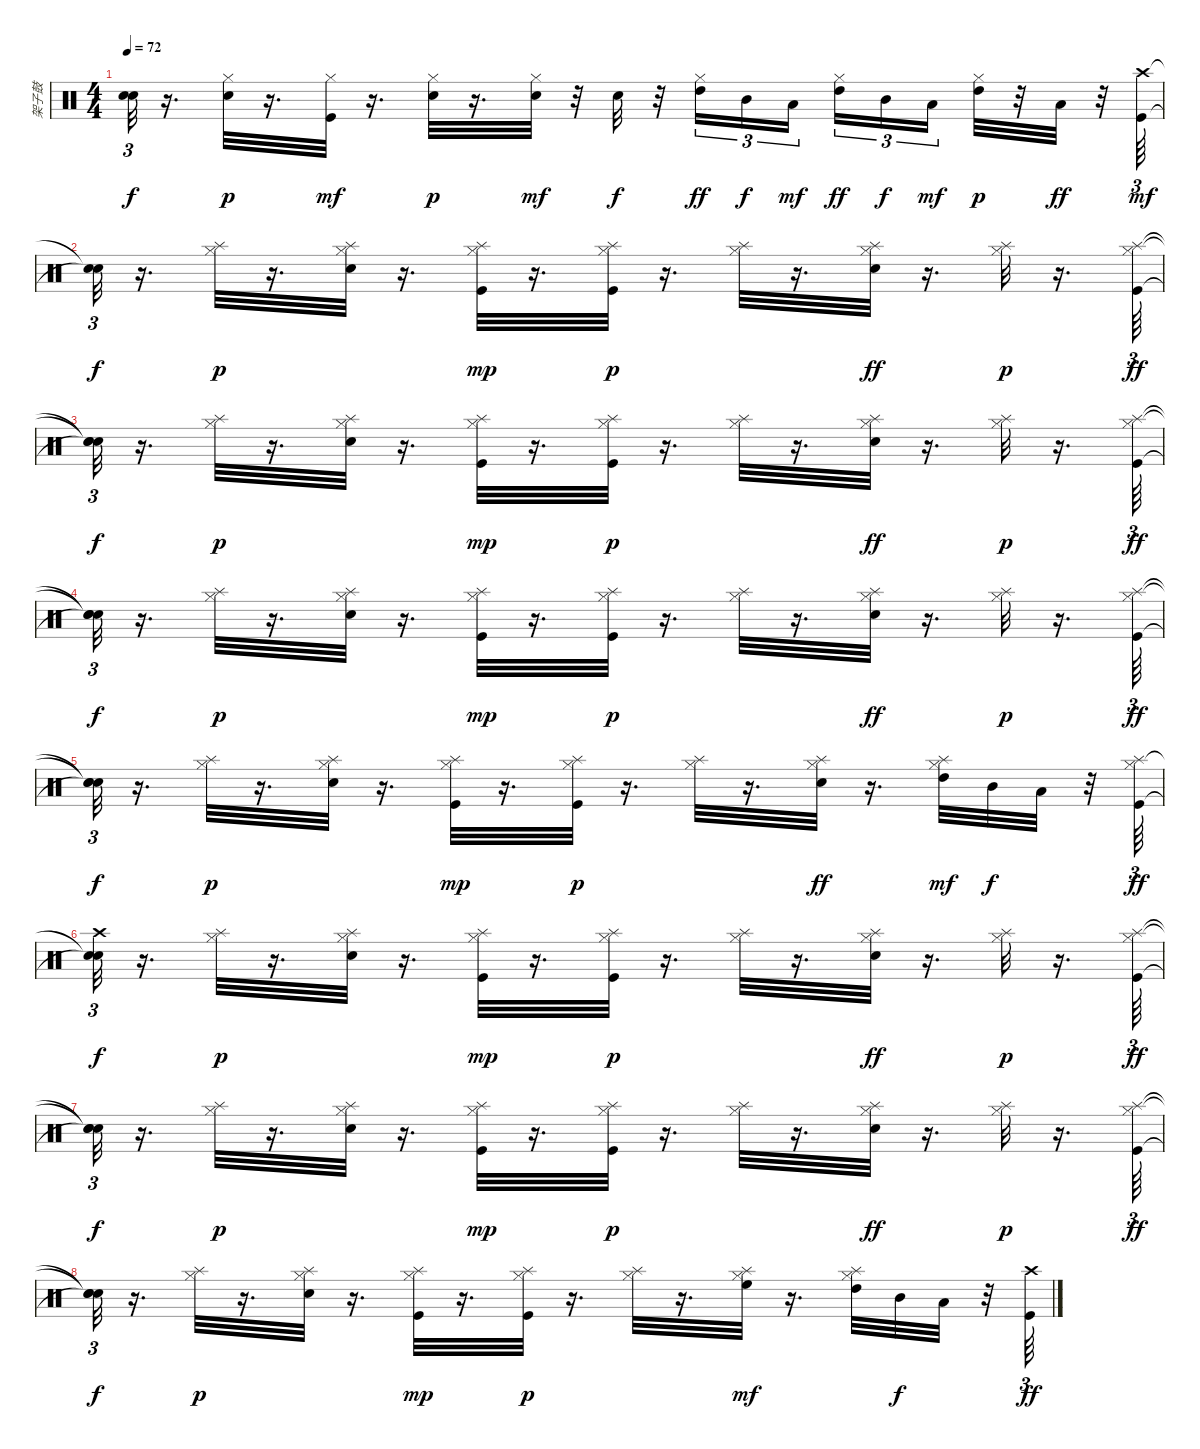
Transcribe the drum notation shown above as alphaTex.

\track ("架子鼓" "架子鼓") {instrument percussion}
\staff {score}
\articulation defaults
\ts (4 4)
\tempo 72
\clef neutral
\ks c
("Snare (hit)"{t} "Snare (hit)"{t}).32{tu (3 2) dy f} r.16{d} ("Hi-Hat (closed)" "Snare (hit) 2").32{dy p} r.16{d} ("Hi-Hat (closed)" "Kick (hit)").32{dy mf} r.16{d} ("Hi-Hat (closed)" "Snare (hit) 2").32{dy p} r.16{d} ("Hi-Hat (closed)" "Snare (hit) 2").32{dy mf} r.32 "Snare (hit) 2".32{dy f} r.32 ("Hi-Hat (closed)" "High Tom (hit)").16{tu (3 2) dy ff} "Mid Tom (hit)".16{tu (3 2) dy f} "Low Tom (hit)".16{tu (3 2) dy mf} ("Hi-Hat (closed)" "High Tom (hit)").16{tu (3 2) dy ff} "Mid Tom (hit)".16{tu (3 2) dy f} "Low Tom (hit)".16{tu (3 2) dy mf} ("High Tom (hit)" "Hi-Hat (closed)").32{dy p} r.32 "Low Tom (hit)".32{dy ff} r.32 ("Crash high (hit)" "Kick (hit)").64{tu (3 2) dy mf} |
("Snare (hit)"{t} "Snare (hit)"{t}).32{tu (3 2) dy f} r.16{d} ("Splash (hit)" "Hi-Hat (closed)").32{dy p} r.16{d} ("Splash (hit)" "Hi-Hat (closed)" "Snare (hit) 2").32 r.16{d} ("Splash (hit)" "Hi-Hat (closed)" "Kick (hit)").32{dy mp} r.16{d} ("Splash (hit)" "Hi-Hat (closed)" "Kick (hit)").32{dy p} r.16{d} ("Splash (hit)" "Hi-Hat (closed)").32 r.16{d} ("Splash (hit)" "Hi-Hat (closed)" "Snare (hit) 2").32{dy ff} r.16{d} ("Splash (hit)" "Hi-Hat (closed)").32{dy p} r.16{d} ("Splash (hit)" "Hi-Hat (closed)" "Kick (hit)").64{tu (3 2) dy ff} |
("Snare (hit)"{t} "Snare (hit)"{t} "Snare (hit)"{t}).32{tu (3 2) dy f} r.16{d} ("Splash (hit)" "Hi-Hat (closed)").32{dy p} r.16{d} ("Splash (hit)" "Hi-Hat (closed)" "Snare (hit) 2").32 r.16{d} ("Splash (hit)" "Hi-Hat (closed)" "Kick (hit)").32{dy mp} r.16{d} ("Splash (hit)" "Hi-Hat (closed)" "Kick (hit)").32{dy p} r.16{d} ("Splash (hit)" "Hi-Hat (closed)").32 r.16{d} ("Splash (hit)" "Hi-Hat (closed)" "Snare (hit) 2").32{dy ff} r.16{d} ("Splash (hit)" "Hi-Hat (closed)").32{dy p} r.16{d} ("Splash (hit)" "Hi-Hat (closed)" "Kick (hit)").64{tu (3 2) dy ff} |
("Snare (hit)"{t} "Snare (hit)"{t} "Snare (hit)"{t}).32{tu (3 2) dy f} r.16{d} ("Splash (hit)" "Hi-Hat (closed)").32{dy p} r.16{d} ("Splash (hit)" "Hi-Hat (closed)" "Snare (hit) 2").32 r.16{d} ("Splash (hit)" "Hi-Hat (closed)" "Kick (hit)").32{dy mp} r.16{d} ("Splash (hit)" "Hi-Hat (closed)" "Kick (hit)").32{dy p} r.16{d} ("Splash (hit)" "Hi-Hat (closed)").32 r.16{d} ("Splash (hit)" "Hi-Hat (closed)" "Snare (hit) 2").32{dy ff} r.16{d} ("Splash (hit)" "Hi-Hat (closed)").32{dy p} r.16{d} ("Splash (hit)" "Hi-Hat (closed)" "Kick (hit)").64{tu (3 2) dy ff} |
("Snare (hit)"{t} "Snare (hit)"{t} "Snare (hit)"{t}).32{tu (3 2) dy f} r.16{d} ("Splash (hit)" "Hi-Hat (closed)").32{dy p} r.16{d} ("Splash (hit)" "Hi-Hat (closed)" "Snare (hit) 2").32 r.16{d} ("Splash (hit)" "Hi-Hat (closed)" "Kick (hit)").32{dy mp} r.16{d} ("Splash (hit)" "Hi-Hat (closed)" "Kick (hit)").32{dy p} r.16{d} ("Splash (hit)" "Hi-Hat (closed)").32 r.16{d} ("Splash (hit)" "Hi-Hat (closed)" "Snare (hit) 2").32{dy ff} r.16{d} ("Splash (hit)" "Hi-Hat (closed)" "High Tom (hit)").32{dy mf} "Mid Tom (hit)".32{dy f} "Low Tom (hit)".32 r.32 ("Splash (hit)" "Hi-Hat (closed)" "Kick (hit)").64{tu (3 2) dy ff} |
("Crash high (hit)" "Snare (hit)"{t} "Snare (hit)"{t}).32{tu (3 2) dy f} r.16{d} ("Splash (hit)" "Hi-Hat (closed)").32{dy p} r.16{d} ("Splash (hit)" "Hi-Hat (closed)" "Snare (hit) 2").32 r.16{d} ("Splash (hit)" "Hi-Hat (closed)" "Kick (hit)").32{dy mp} r.16{d} ("Splash (hit)" "Hi-Hat (closed)" "Kick (hit)").32{dy p} r.16{d} ("Splash (hit)" "Hi-Hat (closed)").32 r.16{d} ("Splash (hit)" "Hi-Hat (closed)" "Snare (hit) 2").32{dy ff} r.16{d} ("Splash (hit)" "Hi-Hat (closed)").32{dy p} r.16{d} ("Splash (hit)" "Hi-Hat (closed)" "Kick (hit)").64{tu (3 2) dy ff} |
("Snare (hit)"{t} "Snare (hit)"{t} "Snare (hit)"{t}).32{tu (3 2) dy f} r.16{d} ("Splash (hit)" "Hi-Hat (closed)").32{dy p} r.16{d} ("Splash (hit)" "Hi-Hat (closed)" "Snare (hit) 2").32 r.16{d} ("Splash (hit)" "Hi-Hat (closed)" "Kick (hit)").32{dy mp} r.16{d} ("Splash (hit)" "Hi-Hat (closed)" "Kick (hit)").32{dy p} r.16{d} ("Splash (hit)" "Hi-Hat (closed)").32 r.16{d} ("Splash (hit)" "Hi-Hat (closed)" "Snare (hit) 2").32{dy ff} r.16{d} ("Splash (hit)" "Hi-Hat (closed)").32{dy p} r.16{d} ("Splash (hit)" "Hi-Hat (closed)" "Kick (hit)").64{tu (3 2) dy ff} |
("Snare (hit)"{t} "Snare (hit)"{t} "Snare (hit)"{t}).32{tu (3 2) dy f} r.16{d} ("Splash (hit)" "Hi-Hat (closed)").32{dy p} r.16{d} ("Splash (hit)" "Hi-Hat (closed)" "Snare (hit) 2").32 r.16{d} ("Splash (hit)" "Hi-Hat (closed)" "Kick (hit)").32{dy mp} r.16{d} ("Splash (hit)" "Hi-Hat (closed)" "Kick (hit)").32{dy p} r.16{d} ("Splash (hit)" "Hi-Hat (closed)").32 r.16{d} ("Splash (hit)" "Hi-Hat (closed)" "High Floor Tom (hit)").32{dy mf} r.16{d} ("Splash (hit)" "Hi-Hat (closed)" "High Tom (hit)").32 "Mid Tom (hit)".32{dy f} "Low Tom (hit)".32 r.32 ("Crash high (hit)" "Kick (hit)").64{tu (3 2) dy ff}
